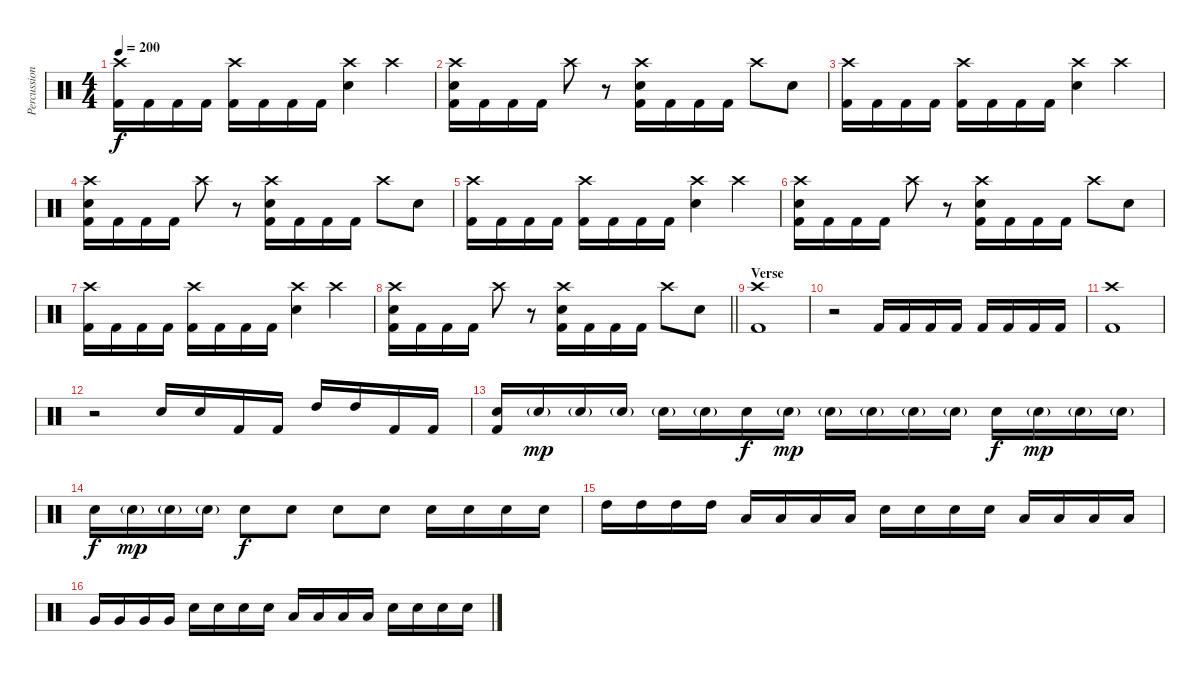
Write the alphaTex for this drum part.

\track ("Percussion" "Percussion") {instrument percussion}
\staff {score}
\articulation defaults
\ts (4 4)
\tempo 200
\clef neutral
\ks c
("Crash high (hit)" "Kick (hit) 2").16{dy f} "Kick (hit) 2".16 "Kick (hit) 2".16 "Kick (hit) 2".16 ("Crash high (hit)" "Kick (hit) 2").16 "Kick (hit) 2".16 "Kick (hit) 2".16 "Kick (hit) 2".16 ("Crash high (hit)" "Electric Snare (hit)").4 "Crash high (hit)".4 |
("Crash high (hit)" "Electric Snare (hit)" "Kick (hit) 2").16 "Kick (hit) 2".16 "Kick (hit) 2".16 "Kick (hit) 2".16 "Crash high (hit)".8 r.8 ("Crash high (hit)" "Electric Snare (hit)" "Kick (hit) 2").16 "Kick (hit) 2".16 "Kick (hit) 2".16 "Kick (hit) 2".16 "Crash high (hit)".8 "Electric Snare (hit)".8 |
("Crash high (hit)" "Kick (hit) 2").16 "Kick (hit) 2".16 "Kick (hit) 2".16 "Kick (hit) 2".16 ("Crash high (hit)" "Kick (hit) 2").16 "Kick (hit) 2".16 "Kick (hit) 2".16 "Kick (hit) 2".16 ("Crash high (hit)" "Electric Snare (hit)").4 "Crash high (hit)".4 |
("Crash high (hit)" "Electric Snare (hit)" "Kick (hit) 2").16 "Kick (hit) 2".16 "Kick (hit) 2".16 "Kick (hit) 2".16 "Crash high (hit)".8 r.8 ("Crash high (hit)" "Electric Snare (hit)" "Kick (hit) 2").16 "Kick (hit) 2".16 "Kick (hit) 2".16 "Kick (hit) 2".16 "Crash high (hit)".8 "Electric Snare (hit)".8 |
("Crash high (hit)" "Kick (hit) 2").16 "Kick (hit) 2".16 "Kick (hit) 2".16 "Kick (hit) 2".16 ("Crash high (hit)" "Kick (hit) 2").16 "Kick (hit) 2".16 "Kick (hit) 2".16 "Kick (hit) 2".16 ("Crash high (hit)" "Electric Snare (hit)").4 "Crash high (hit)".4 |
("Crash high (hit)" "Electric Snare (hit)" "Kick (hit) 2").16 "Kick (hit) 2".16 "Kick (hit) 2".16 "Kick (hit) 2".16 "Crash high (hit)".8 r.8 ("Crash high (hit)" "Electric Snare (hit)" "Kick (hit) 2").16 "Kick (hit) 2".16 "Kick (hit) 2".16 "Kick (hit) 2".16 "Crash high (hit)".8 "Electric Snare (hit)".8 |
("Crash high (hit)" "Kick (hit) 2").16 "Kick (hit) 2".16 "Kick (hit) 2".16 "Kick (hit) 2".16 ("Crash high (hit)" "Kick (hit) 2").16 "Kick (hit) 2".16 "Kick (hit) 2".16 "Kick (hit) 2".16 ("Crash high (hit)" "Electric Snare (hit)").4 "Crash high (hit)".4 |
\barLineRight lightlight
("Crash high (hit)" "Electric Snare (hit)" "Kick (hit) 2").16 "Kick (hit) 2".16 "Kick (hit) 2".16 "Kick (hit) 2".16 "Crash high (hit)".8 r.8 ("Crash high (hit)" "Electric Snare (hit)" "Kick (hit) 2").16 "Kick (hit) 2".16 "Kick (hit) 2".16 "Kick (hit) 2".16 "Crash high (hit)".8 "Electric Snare (hit)".8 |
\section ("" "Verse")
("Crash high (hit)" "Kick (hit) 2").1 |
r.2 "Kick (hit) 2".16 "Kick (hit) 2".16 "Kick (hit) 2".16 "Kick (hit) 2".16 "Kick (hit) 2".16 "Kick (hit) 2".16 "Kick (hit) 2".16 "Kick (hit) 2".16 |
("Crash high (hit)" "Kick (hit) 2").1 |
r.2 "Electric Snare (hit)".16 "Electric Snare (hit)".16 "Kick (hit) 2".16 "Kick (hit) 2".16 "High Tom (hit)".16 "High Tom (hit)".16 "Kick (hit) 2".16 "Kick (hit) 2".16 |
("Electric Snare (hit)" "Kick (hit) 2").16 "Electric Snare (hit)"{g}.16{dy mp} "Electric Snare (hit)"{g}.16 "Electric Snare (hit)"{g}.16 "Electric Snare (hit)"{g}.16 "Electric Snare (hit)"{g}.16 "Electric Snare (hit)".16{dy f} "Electric Snare (hit)"{g}.16{dy mp} "Electric Snare (hit)"{g}.16 "Electric Snare (hit)"{g}.16 "Electric Snare (hit)"{g}.16 "Electric Snare (hit)"{g}.16 "Electric Snare (hit)".16{dy f} "Electric Snare (hit)"{g}.16{dy mp} "Electric Snare (hit)"{g}.16 "Electric Snare (hit)"{g}.16 |
"Electric Snare (hit)".16{dy f} "Electric Snare (hit)"{g}.16{dy mp} "Electric Snare (hit)"{g}.16 "Electric Snare (hit)"{g}.16 "Electric Snare (hit)".8{dy f} "Electric Snare (hit)".8 "Electric Snare (hit)".8 "Electric Snare (hit)".8 "Electric Snare (hit)".16 "Electric Snare (hit)".16 "Electric Snare (hit)".16 "Electric Snare (hit)".16 |
"High Tom (hit)".16 "High Tom (hit)".16 "High Tom (hit)".16 "High Tom (hit)".16 "Low Tom (hit)".16 "Low Tom (hit)".16 "Low Tom (hit)".16 "Low Tom (hit)".16 "Electric Snare (hit)".16 "Electric Snare (hit)".16 "Electric Snare (hit)".16 "Electric Snare (hit)".16 "Low Tom (hit)".16 "Low Tom (hit)".16 "Low Tom (hit)".16 "Low Tom (hit)".16 |
"Very Low Tom (hit)".16 "Very Low Tom (hit)".16 "Very Low Tom (hit)".16 "Very Low Tom (hit)".16 "Electric Snare (hit)".16 "Electric Snare (hit)".16 "Electric Snare (hit)".16 "Electric Snare (hit)".16 "Low Tom (hit)".16 "Low Tom (hit)".16 "Low Tom (hit)".16 "Low Tom (hit)".16 "Electric Snare (hit)".16 "Electric Snare (hit)".16 "Electric Snare (hit)".16 "Electric Snare (hit)".16
